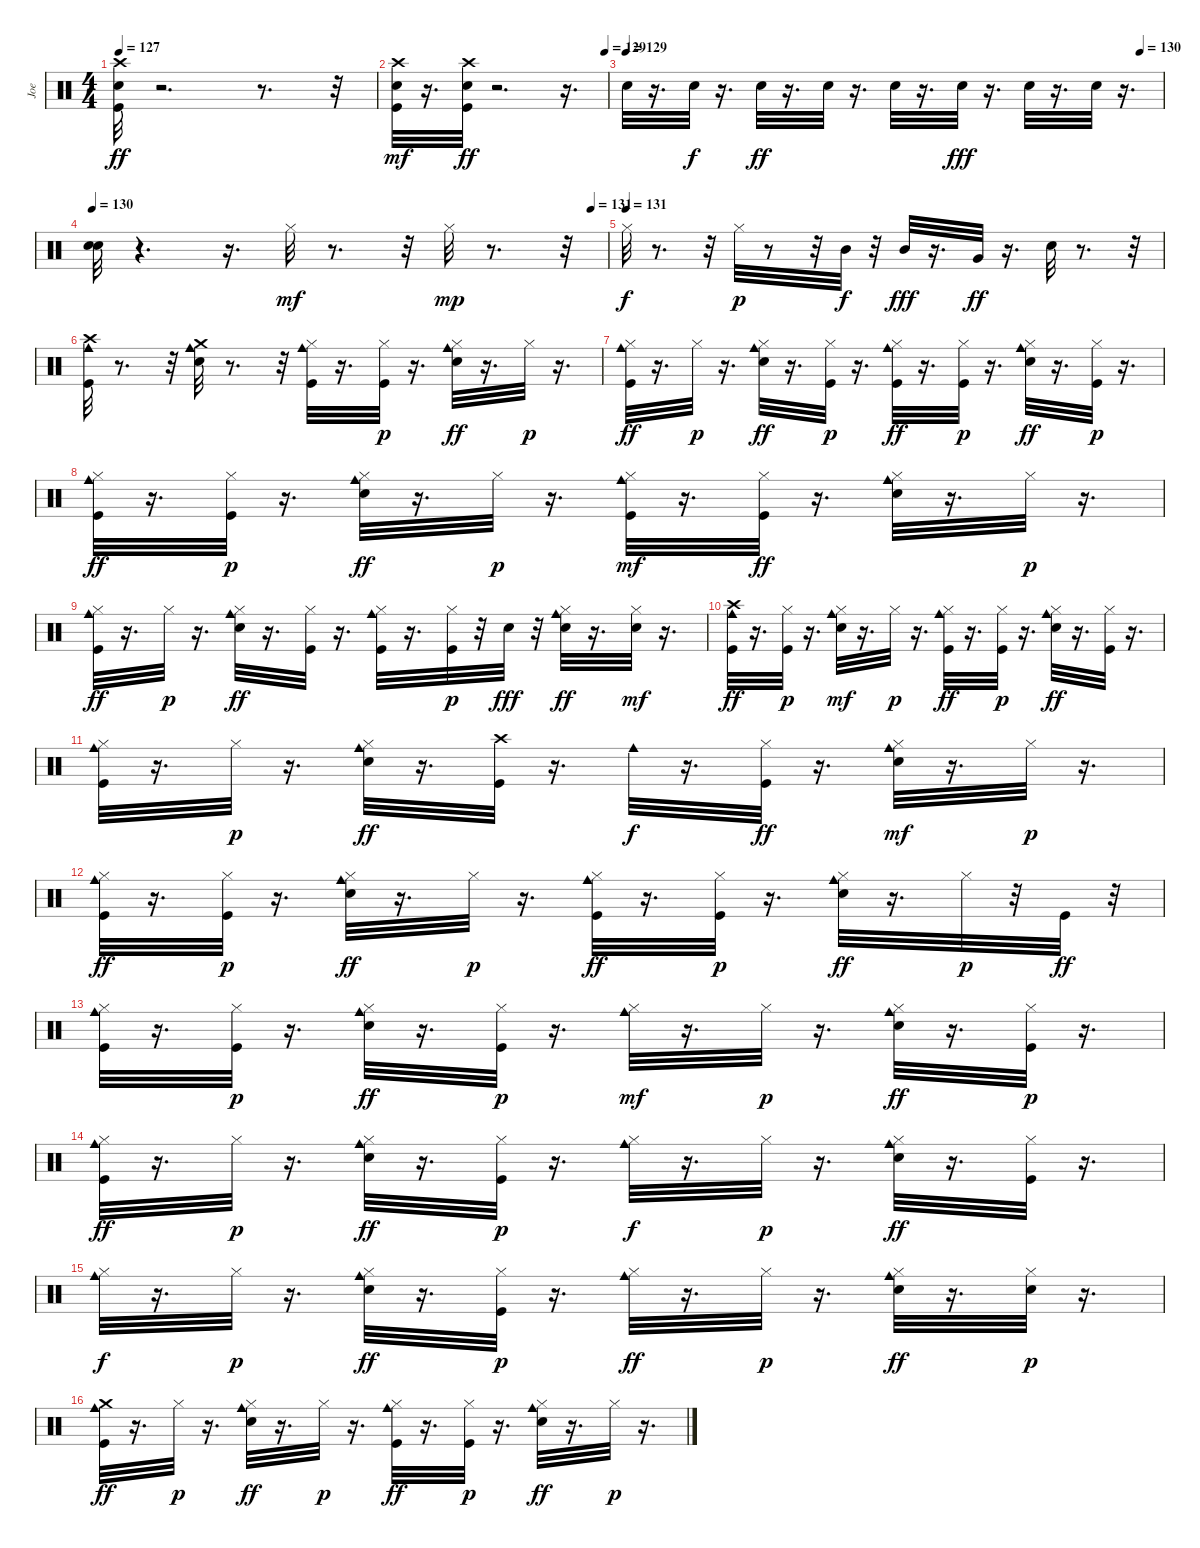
\track ("Joe" "Joe") {instrument percussion}
\staff {score}
\articulation defaults
\ts (4 4)
\tempo 127
\clef neutral
\ks c
("Snare (hit) 2" "Kick (hit)" "Crash high (hit)").32{dy ff} r.2{d} r.8{d} r.32 |
\tempo (129 0.9895833333333334)
("Kick (hit)" "Snare (hit) 2" "Crash high (hit)").32{dy mf} r.16{d} ("Snare (hit) 2" "Kick (hit)" "Crash high (hit)").32{dy ff} r.2{d} r.16{d} |
\tempo (130 0.9583333333333334)
\tempo (129)
"Snare (hit) 2".32 r.16{d} "Snare (hit) 2".32{dy f} r.16{d} "Snare (hit) 2".32{dy ff} r.16{d} "Snare (hit) 2".32 r.16{d} "Snare (hit) 2".32 r.16{d} "Snare (hit) 2".32{dy fff} r.16{d} "Snare (hit) 2".32 r.16{d} "Snare (hit) 2".32 r.16{d} |
\tempo 130
\tempo (131 0.96875)
("Snare (hit) 2" "Snare (hit) 2").32 r.4{d} r.16{d} "Hi-Hat (closed)".32{dy mf} r.8{d} r.32 "Hi-Hat (closed)".32{dy mp} r.8{d} r.32 |
\tempo (131)
"Hi-Hat (closed)".32{dy f} r.8{d} r.32 "Hi-Hat (closed)".32{dy p} r.8 r.32 "Mid Tom (hit)".32{dy f} r.32 "Mid Tom (hit)".32{dy fff} r.16{d} "Very Low Tom (hit)".32{dy ff} r.16{d} "Snare (hit) 2".32 r.8{d} r.32 |
("Crash high (hit)" "Cowbell medium (hit)" "Kick (hit)").32 r.8{d} r.32 ("Crash medium (hit)" "Snare (hit) 2" "Cowbell medium (hit)").32 r.8{d} r.32 ("Kick (hit)" "Hi-Hat (closed)" "Cowbell medium (hit)").32 r.16{d} ("Kick (hit)" "Hi-Hat (closed)").32{dy p} r.16{d} ("Snare (hit) 2" "Hi-Hat (closed)" "Cowbell medium (hit)").32{dy ff} r.16{d} "Hi-Hat (closed)".32{dy p} r.16{d} |
("Hi-Hat (closed)" "Kick (hit)" "Cowbell medium (hit)").32{dy ff} r.16{d} "Hi-Hat (closed)".32{dy p} r.16{d} ("Hi-Hat (closed)" "Snare (hit) 2" "Cowbell medium (hit)").32{dy ff} r.16{d} ("Hi-Hat (closed)" "Kick (hit)").32{dy p} r.16{d} ("Hi-Hat (closed)" "Kick (hit)" "Cowbell medium (hit)").32{dy ff} r.16{d} ("Hi-Hat (closed)" "Kick (hit)").32{dy p} r.16{d} ("Cowbell medium (hit)" "Snare (hit) 2" "Hi-Hat (closed)").32{dy ff} r.16{d} ("Kick (hit)" "Hi-Hat (closed)").32{dy p} r.16{d} |
("Hi-Hat (closed)" "Kick (hit)" "Cowbell medium (hit)").32{dy ff} r.16{d} ("Kick (hit)" "Hi-Hat (closed)").32{dy p} r.16{d} ("Hi-Hat (closed)" "Snare (hit) 2" "Cowbell medium (hit)").32{dy ff} r.16{d} "Hi-Hat (closed)".32{dy p} r.16{d} ("Kick (hit)" "Hi-Hat (closed)" "Cowbell medium (hit)").32{dy mf} r.16{d} ("Hi-Hat (closed)" "Kick (hit)").32{dy ff} r.16{d} ("Cowbell medium (hit)" "Hi-Hat (closed)" "Snare (hit) 2").32 r.16{d} "Hi-Hat (closed)".32{dy p} r.16{d} |
("Cowbell medium (hit)" "Hi-Hat (closed)" "Kick (hit)").32{dy ff} r.16{d} "Hi-Hat (closed)".32{dy p} r.16{d} ("Hi-Hat (closed)" "Cowbell medium (hit)" "Snare (hit) 2").32{dy ff} r.16{d} ("Hi-Hat (closed)" "Kick (hit)").32 r.16{d} ("Cowbell medium (hit)" "Hi-Hat (closed)" "Kick (hit)").32 r.16{d} ("Kick (hit)" "Hi-Hat (closed)").32{dy p} r.32 "Snare (hit) 2".32{dy fff} r.32 ("Cowbell medium (hit)" "Hi-Hat (closed)" "Snare (hit) 2").32{dy ff} r.16{d} ("Hi-Hat (closed)" "Snare (hit) 2").32{dy mf} r.16{d} |
("Kick (hit)" "Crash high (hit)" "Cowbell medium (hit)").32{dy ff} r.16{d} ("Kick (hit)" "Hi-Hat (closed)").32{dy p} r.16{d} ("Cowbell medium (hit)" "Snare (hit) 2" "Hi-Hat (closed)").32{dy mf} r.16{d} "Hi-Hat (closed)".32{dy p} r.16{d} ("Cowbell medium (hit)" "Kick (hit)" "Hi-Hat (closed)").32{dy ff} r.16{d} ("Kick (hit)" "Hi-Hat (closed)").32{dy p} r.16{d} ("Snare (hit) 2" "Cowbell medium (hit)" "Hi-Hat (closed)").32{dy ff} r.16{d} ("Hi-Hat (closed)" "Kick (hit)").32 r.16{d} |
("Kick (hit)" "Hi-Hat (closed)" "Cowbell medium (hit)").32 r.16{d} "Hi-Hat (closed)".32{dy p} r.16{d} ("Cowbell medium (hit)" "Snare (hit) 2" "Hi-Hat (closed)").32{dy ff} r.16{d} ("Kick (hit)" "Crash high (hit)").32 r.16{d} "Cowbell medium (hit)".32{dy f} r.16{d} ("Hi-Hat (closed)" "Kick (hit)").32{dy ff} r.16{d} ("Cowbell medium (hit)" "Snare (hit) 2" "Hi-Hat (closed)").32{dy mf} r.16{d} "Hi-Hat (closed)".32{dy p} r.16{d} |
("Kick (hit)" "Cowbell medium (hit)" "Hi-Hat (closed)").32{dy ff} r.16{d} ("Kick (hit)" "Hi-Hat (closed)").32{dy p} r.16{d} ("Cowbell medium (hit)" "Snare (hit) 2" "Hi-Hat (closed)").32{dy ff} r.16{d} "Hi-Hat (closed)".32{dy p} r.16{d} ("Hi-Hat (closed)" "Kick (hit)" "Cowbell medium (hit)").32{dy ff} r.16{d} ("Kick (hit)" "Hi-Hat (closed)").32{dy p} r.16{d} ("Snare (hit) 2" "Hi-Hat (closed)" "Cowbell medium (hit)").32{dy ff} r.16{d} "Hi-Hat (closed)".32{dy p} r.32 "Kick (hit)".32{dy ff} r.32 |
("Cowbell medium (hit)" "Kick (hit)" "Hi-Hat (closed)").32 r.16{d} ("Hi-Hat (closed)" "Kick (hit)").32{dy p} r.16{d} ("Cowbell medium (hit)" "Hi-Hat (closed)" "Snare (hit) 2").32{dy ff} r.16{d} ("Kick (hit)" "Hi-Hat (closed)").32{dy p} r.16{d} ("Hi-Hat (closed)" "Cowbell medium (hit)").32{dy mf} r.16{d} "Hi-Hat (closed)".32{dy p} r.16{d} ("Hi-Hat (closed)" "Snare (hit) 2" "Cowbell medium (hit)").32{dy ff} r.16{d} ("Kick (hit)" "Hi-Hat (closed)").32{dy p} r.16{d} |
("Cowbell medium (hit)" "Kick (hit)" "Hi-Hat (closed)").32{dy ff} r.16{d} "Hi-Hat (closed)".32{dy p} r.16{d} ("Cowbell medium (hit)" "Hi-Hat (closed)" "Snare (hit) 2").32{dy ff} r.16{d} ("Kick (hit)" "Hi-Hat (closed)").32{dy p} r.16{d} ("Cowbell medium (hit)" "Hi-Hat (closed)").32{dy f} r.16{d} "Hi-Hat (closed)".32{dy p} r.16{d} ("Cowbell medium (hit)" "Hi-Hat (closed)" "Snare (hit) 2").32{dy ff} r.16{d} ("Hi-Hat (closed)" "Kick (hit)").32 r.16{d} |
("Hi-Hat (closed)" "Cowbell medium (hit)").32{dy f} r.16{d} "Hi-Hat (closed)".32{dy p} r.16{d} ("Snare (hit) 2" "Cowbell medium (hit)" "Hi-Hat (closed)").32{dy ff} r.16{d} ("Kick (hit)" "Hi-Hat (closed)").32{dy p} r.16{d} ("Hi-Hat (closed)" "Cowbell medium (hit)").32{dy ff} r.16{d} "Hi-Hat (closed)".32{dy p} r.16{d} ("Snare (hit) 2" "Hi-Hat (closed)" "Cowbell medium (hit)").32{dy ff} r.16{d} ("Snare (hit) 2" "Hi-Hat (closed)").32{dy p} r.16{d} |
("Crash medium (hit)" "Cowbell medium (hit)" "Kick (hit)").32{dy ff} r.16{d} "Hi-Hat (closed)".32{dy p} r.16{d} ("Hi-Hat (closed)" "Snare (hit) 2" "Cowbell medium (hit)").32{dy ff} r.16{d} "Hi-Hat (closed)".32{dy p} r.16{d} ("Hi-Hat (closed)" "Cowbell medium (hit)" "Kick (hit)").32{dy ff} r.16{d} ("Kick (hit)" "Hi-Hat (closed)").32{dy p} r.16{d} ("Cowbell medium (hit)" "Snare (hit) 2" "Hi-Hat (closed)").32{dy ff} r.16{d} "Hi-Hat (closed)".32{dy p} r.16{d}
